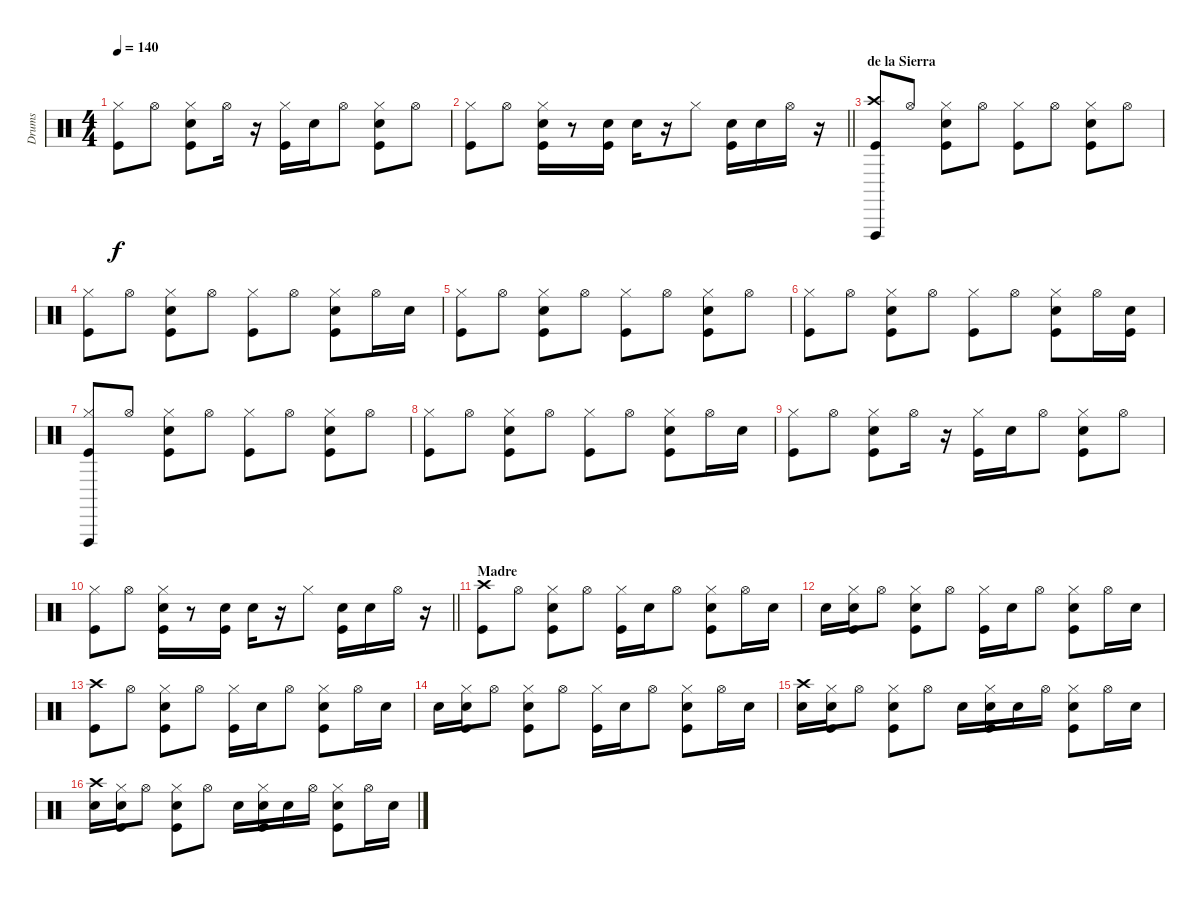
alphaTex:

\track ("Drums" "Drums") {instrument percussion}
\staff {score}
\articulation defaults
\ts (4 4)
\tempo 140
\clef neutral
\ks c
("Hi-Hat (closed)" "Kick (hit)").8{dy f} "Hi-Hat (open)".8 ("Hi-Hat (closed)" "Snare (hit) 2" "Kick (hit)").8 "Hi-Hat (open)".16 r.16 ("Hi-Hat (closed)" "Kick (hit)").16 "Snare (hit) 2".16 "Hi-Hat (open)".8 ("Hi-Hat (closed)" "Snare (hit) 2" "Kick (hit)").8 "Hi-Hat (open)".8 |
\barLineRight lightlight
("Hi-Hat (closed)" "Kick (hit)").8 "Hi-Hat (open)".8 ("Hi-Hat (closed)" "Snare (hit) 2" "Kick (hit)").16 r.8 ("Snare (hit) 2" "Kick (hit)").16 "Snare (hit) 2".16 r.16 "Hi-Hat (closed)".8 ("Snare (hit) 2" "Kick (hit)").16 "Snare (hit) 2".16 "Hi-Hat (open)".16 r.16 |
\section ("" "de la Sierra")
("Crash high (hit)" "Vibraslap (hit)" "Kick (hit)").8 "Hi-Hat (open)".8 ("Hi-Hat (closed)" "Snare (hit) 2" "Kick (hit)").8 "Hi-Hat (open)".8 ("Hi-Hat (closed)" "Kick (hit)").8 "Hi-Hat (open)".8 ("Hi-Hat (closed)" "Snare (hit) 2" "Kick (hit)").8 "Hi-Hat (open)".8 |
("Hi-Hat (closed)" "Kick (hit)").8 "Hi-Hat (open)".8 ("Hi-Hat (closed)" "Snare (hit) 2" "Kick (hit)").8 "Hi-Hat (open)".8 ("Hi-Hat (closed)" "Kick (hit)").8 "Hi-Hat (open)".8 ("Hi-Hat (closed)" "Snare (hit) 2" "Kick (hit)").8 "Hi-Hat (open)".16 "Snare (hit) 2".16 |
("Hi-Hat (closed)" "Kick (hit)").8 "Hi-Hat (open)".8 ("Hi-Hat (closed)" "Snare (hit) 2" "Kick (hit)").8 "Hi-Hat (open)".8 ("Hi-Hat (closed)" "Kick (hit)").8 "Hi-Hat (open)".8 ("Hi-Hat (closed)" "Snare (hit) 2" "Kick (hit)").8 "Hi-Hat (open)".8 |
("Hi-Hat (closed)" "Kick (hit)").8 "Hi-Hat (open)".8 ("Hi-Hat (closed)" "Snare (hit) 2" "Kick (hit)").8 "Hi-Hat (open)".8 ("Hi-Hat (closed)" "Kick (hit)").8 "Hi-Hat (open)".8 ("Hi-Hat (closed)" "Snare (hit) 2" "Kick (hit)").8 "Hi-Hat (open)".16 ("Snare (hit) 2" "Kick (hit)").16 |
("Hi-Hat (closed)" "Vibraslap (hit)" "Kick (hit)").8 "Hi-Hat (open)".8 ("Hi-Hat (closed)" "Snare (hit) 2" "Kick (hit)").8 "Hi-Hat (open)".8 ("Hi-Hat (closed)" "Kick (hit)").8 "Hi-Hat (open)".8 ("Hi-Hat (closed)" "Snare (hit) 2" "Kick (hit)").8 "Hi-Hat (open)".8 |
("Hi-Hat (closed)" "Kick (hit)").8 "Hi-Hat (open)".8 ("Hi-Hat (closed)" "Snare (hit) 2" "Kick (hit)").8 "Hi-Hat (open)".8 ("Hi-Hat (closed)" "Kick (hit)").8 "Hi-Hat (open)".8 ("Hi-Hat (closed)" "Snare (hit) 2" "Kick (hit)").8 "Hi-Hat (open)".16 "Snare (hit) 2".16 |
("Hi-Hat (closed)" "Kick (hit)").8 "Hi-Hat (open)".8 ("Hi-Hat (closed)" "Snare (hit) 2" "Kick (hit)").8 "Hi-Hat (open)".16 r.16 ("Hi-Hat (closed)" "Kick (hit)").16 "Snare (hit) 2".16 "Hi-Hat (open)".8 ("Hi-Hat (closed)" "Snare (hit) 2" "Kick (hit)").8 "Hi-Hat (open)".8 |
\barLineRight lightlight
("Hi-Hat (closed)" "Kick (hit)").8 "Hi-Hat (open)".8 ("Hi-Hat (closed)" "Snare (hit) 2" "Kick (hit)").16 r.8 ("Snare (hit) 2" "Kick (hit)").16 "Snare (hit) 2".16 r.16 "Hi-Hat (closed)".8 ("Snare (hit) 2" "Kick (hit)").16 "Snare (hit) 2".16 "Hi-Hat (open)".16 r.16 |
\section ("" "Madre")
("Crash high (hit)" "Kick (hit)").8 "Hi-Hat (open)".8 ("Hi-Hat (closed)" "Snare (hit) 2" "Kick (hit)").8 "Hi-Hat (open)".8 ("Hi-Hat (closed)" "Kick (hit)").16 "Snare (hit) 2".16 "Hi-Hat (open)".8 ("Hi-Hat (closed)" "Snare (hit) 2" "Kick (hit)").8 "Hi-Hat (open)".16 "Snare (hit) 2".16 |
"Snare (hit) 2".16 ("Hi-Hat (closed)" "Snare (hit) 2" "Kick (hit)").16 "Hi-Hat (open)".8 ("Hi-Hat (closed)" "Snare (hit) 2" "Kick (hit)").8 "Hi-Hat (open)".8 ("Hi-Hat (closed)" "Kick (hit)").16 "Snare (hit) 2".16 "Hi-Hat (open)".8 ("Hi-Hat (closed)" "Snare (hit) 2" "Kick (hit)").8 "Hi-Hat (open)".16 "Snare (hit) 2".16 |
("Crash high (hit)" "Kick (hit)").8 "Hi-Hat (open)".8 ("Hi-Hat (closed)" "Snare (hit) 2" "Kick (hit)").8 "Hi-Hat (open)".8 ("Hi-Hat (closed)" "Kick (hit)").16 "Snare (hit) 2".16 "Hi-Hat (open)".8 ("Hi-Hat (closed)" "Snare (hit) 2" "Kick (hit)").8 "Hi-Hat (open)".16 "Snare (hit) 2".16 |
"Snare (hit) 2".16 ("Hi-Hat (closed)" "Snare (hit) 2" "Kick (hit)").16 "Hi-Hat (open)".8 ("Hi-Hat (closed)" "Snare (hit) 2" "Kick (hit)").8 "Hi-Hat (open)".8 ("Hi-Hat (closed)" "Kick (hit)").16 "Snare (hit) 2".16 "Hi-Hat (open)".8 ("Hi-Hat (closed)" "Snare (hit) 2" "Kick (hit)").8 "Hi-Hat (open)".16 "Snare (hit) 2".16 |
("Crash high (hit)" "Snare (hit) 2").16 ("Hi-Hat (closed)" "Snare (hit) 2" "Kick (hit)").16 "Hi-Hat (open)".8 ("Hi-Hat (closed)" "Snare (hit) 2" "Kick (hit)").8 "Hi-Hat (open)".8 "Snare (hit) 2".16 ("Hi-Hat (closed)" "Snare (hit) 2" "Kick (hit)").16 "Snare (hit) 2".16 "Hi-Hat (open)".16 ("Hi-Hat (closed)" "Snare (hit) 2" "Kick (hit)").8 "Hi-Hat (open)".16 "Snare (hit) 2".16 |
("Crash high (hit)" "Snare (hit) 2").16 ("Hi-Hat (closed)" "Snare (hit) 2" "Kick (hit)").16 "Hi-Hat (open)".8 ("Hi-Hat (closed)" "Snare (hit) 2" "Kick (hit)").8 "Hi-Hat (open)".8 "Snare (hit) 2".16 ("Hi-Hat (closed)" "Snare (hit) 2" "Kick (hit)").16 "Snare (hit) 2".16 "Hi-Hat (open)".16 ("Hi-Hat (closed)" "Snare (hit) 2" "Kick (hit)").8 "Hi-Hat (open)".16 "Snare (hit) 2".16
